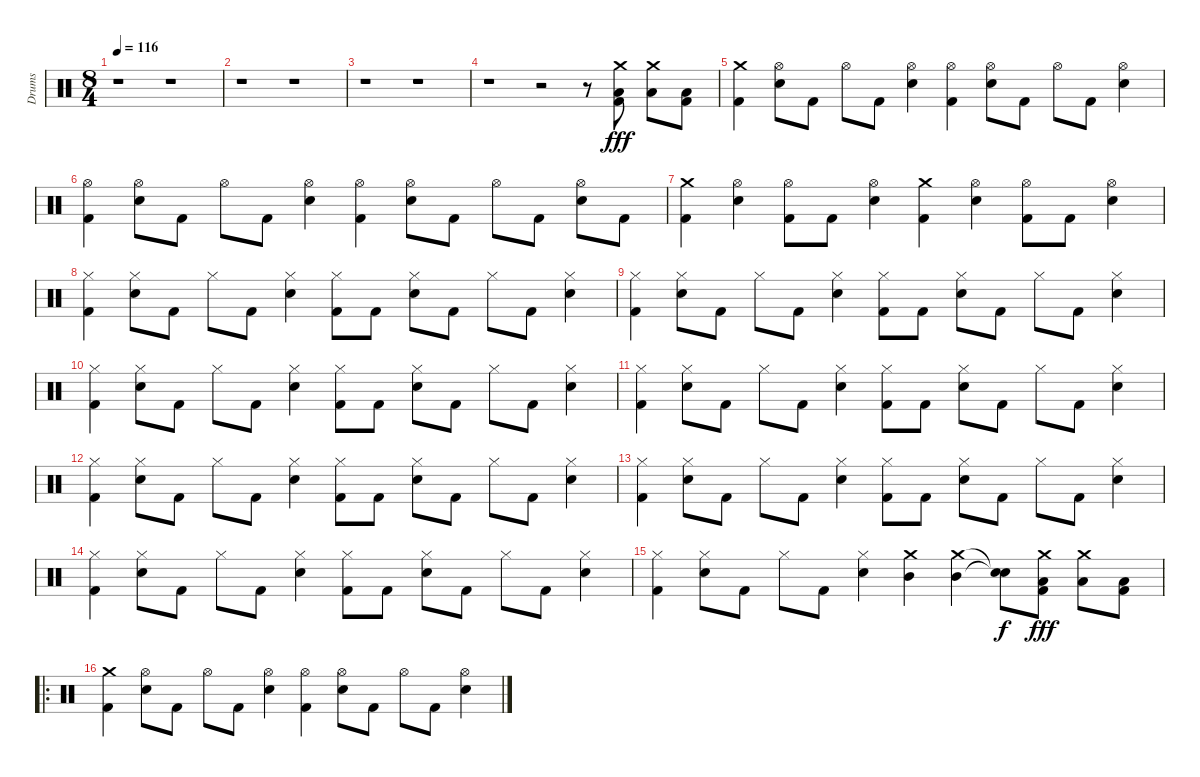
\track ("Drums" "Drums") {instrument percussion}
\staff {score}
\articulation defaults
\ts (8 4)
\tempo 116
\clef neutral
\ks c
r.1{dy fff} r.1 |
r.1 r.1 |
r.1 r.1 |
r.1 r.2 r.8 ("Crash medium (hit)" "Low Tom (hit)" "Kick (hit) 2").8 ("Crash medium (hit)" "Low Tom (hit)").8 ("Low Tom (hit)" "Kick (hit) 2").8 |
("Crash medium (hit)" "Kick (hit) 2").4 ("Hi-Hat (open)" "Snare (hit) 2").8 "Kick (hit) 2".8 "Hi-Hat (open)".8 "Kick (hit) 2".8 ("Hi-Hat (open)" "Snare (hit) 2").4 ("Hi-Hat (open)" "Kick (hit) 2").4 ("Hi-Hat (open)" "Snare (hit) 2").8 "Kick (hit) 2".8 "Hi-Hat (open)".8 "Kick (hit) 2".8 ("Hi-Hat (open)" "Snare (hit) 2").4 |
("Hi-Hat (open)" "Kick (hit) 2").4 ("Hi-Hat (open)" "Snare (hit) 2").8 "Kick (hit) 2".8 "Hi-Hat (open)".8 "Kick (hit) 2".8 ("Hi-Hat (open)" "Snare (hit) 2").4 ("Hi-Hat (open)" "Kick (hit) 2").4 ("Hi-Hat (open)" "Snare (hit) 2").8 "Kick (hit) 2".8 "Hi-Hat (open)".8 "Kick (hit) 2".8 ("Hi-Hat (open)" "Snare (hit) 2").8 "Kick (hit) 2".8 |
("Crash medium (hit)" "Kick (hit) 2").4 ("Hi-Hat (open)" "Snare (hit) 2").4 ("Hi-Hat (open)" "Kick (hit) 2").8 "Kick (hit) 2".8 ("Hi-Hat (open)" "Snare (hit) 2").4 ("Crash medium (hit)" "Kick (hit) 2").4 ("Hi-Hat (open)" "Snare (hit) 2").4 ("Hi-Hat (open)" "Kick (hit) 2").8 "Kick (hit) 2".8 ("Hi-Hat (open)" "Snare (hit) 2").4 |
("Hi-Hat (closed)" "Kick (hit) 2").4 ("Hi-Hat (closed)" "Snare (hit) 2").8 "Kick (hit) 2".8 "Hi-Hat (closed)".8 "Kick (hit) 2".8 ("Hi-Hat (closed)" "Snare (hit) 2").4 ("Hi-Hat (closed)" "Kick (hit) 2").8 "Kick (hit) 2".8 ("Hi-Hat (closed)" "Snare (hit) 2").8 "Kick (hit) 2".8 "Hi-Hat (closed)".8 "Kick (hit) 2".8 ("Hi-Hat (closed)" "Snare (hit) 2").4 |
("Hi-Hat (closed)" "Kick (hit) 2").4 ("Hi-Hat (closed)" "Snare (hit) 2").8 "Kick (hit) 2".8 "Hi-Hat (closed)".8 "Kick (hit) 2".8 ("Hi-Hat (closed)" "Snare (hit) 2").4 ("Hi-Hat (closed)" "Kick (hit) 2").8 "Kick (hit) 2".8 ("Hi-Hat (closed)" "Snare (hit) 2").8 "Kick (hit) 2".8 "Hi-Hat (closed)".8 "Kick (hit) 2".8 ("Hi-Hat (closed)" "Snare (hit) 2").4 |
("Hi-Hat (closed)" "Kick (hit) 2").4 ("Hi-Hat (closed)" "Snare (hit) 2").8 "Kick (hit) 2".8 "Hi-Hat (closed)".8 "Kick (hit) 2".8 ("Hi-Hat (closed)" "Snare (hit) 2").4 ("Hi-Hat (closed)" "Kick (hit) 2").8 "Kick (hit) 2".8 ("Hi-Hat (closed)" "Snare (hit) 2").8 "Kick (hit) 2".8 "Hi-Hat (closed)".8 "Kick (hit) 2".8 ("Hi-Hat (closed)" "Snare (hit) 2").4 |
("Hi-Hat (closed)" "Kick (hit) 2").4 ("Hi-Hat (closed)" "Snare (hit) 2").8 "Kick (hit) 2".8 "Hi-Hat (closed)".8 "Kick (hit) 2".8 ("Hi-Hat (closed)" "Snare (hit) 2").4 ("Hi-Hat (closed)" "Kick (hit) 2").8 "Kick (hit) 2".8 ("Hi-Hat (closed)" "Snare (hit) 2").8 "Kick (hit) 2".8 "Hi-Hat (closed)".8 "Kick (hit) 2".8 ("Hi-Hat (closed)" "Snare (hit) 2").4 |
("Hi-Hat (closed)" "Kick (hit) 2").4 ("Hi-Hat (closed)" "Snare (hit) 2").8 "Kick (hit) 2".8 "Hi-Hat (closed)".8 "Kick (hit) 2".8 ("Hi-Hat (closed)" "Snare (hit) 2").4 ("Hi-Hat (closed)" "Kick (hit) 2").8 "Kick (hit) 2".8 ("Hi-Hat (closed)" "Snare (hit) 2").8 "Kick (hit) 2".8 "Hi-Hat (closed)".8 "Kick (hit) 2".8 ("Hi-Hat (closed)" "Snare (hit) 2").4 |
("Hi-Hat (closed)" "Kick (hit) 2").4 ("Hi-Hat (closed)" "Snare (hit) 2").8 "Kick (hit) 2".8 "Hi-Hat (closed)".8 "Kick (hit) 2".8 ("Hi-Hat (closed)" "Snare (hit) 2").4 ("Hi-Hat (closed)" "Kick (hit) 2").8 "Kick (hit) 2".8 ("Hi-Hat (closed)" "Snare (hit) 2").8 "Kick (hit) 2".8 "Hi-Hat (closed)".8 "Kick (hit) 2".8 ("Hi-Hat (closed)" "Snare (hit) 2").4 |
("Hi-Hat (closed)" "Kick (hit) 2").4 ("Hi-Hat (closed)" "Snare (hit) 2").8 "Kick (hit) 2".8 "Hi-Hat (closed)".8 "Kick (hit) 2".8 ("Hi-Hat (closed)" "Snare (hit) 2").4 ("Hi-Hat (closed)" "Kick (hit) 2").8 "Kick (hit) 2".8 ("Hi-Hat (closed)" "Snare (hit) 2").8 "Kick (hit) 2".8 "Hi-Hat (closed)".8 "Kick (hit) 2".8 ("Hi-Hat (closed)" "Snare (hit) 2").4 |
("Hi-Hat (closed)" "Kick (hit) 2").4 ("Hi-Hat (closed)" "Snare (hit) 2").8 "Kick (hit) 2".8 "Hi-Hat (closed)".8 "Kick (hit) 2".8 ("Hi-Hat (closed)" "Snare (hit) 2").4 ("Crash medium (hit)" "Mid Tom (hit)").4 ("Crash medium (hit)" "Mid Tom (hit)").4 ("Snare (hit)"{t} "Snare (hit)"{t}).8{dy f} ("Crash medium (hit)" "Low Tom (hit)" "Kick (hit) 2").8{dy fff} ("Crash medium (hit)" "Low Tom (hit)").8 ("Low Tom (hit)" "Kick (hit) 2").8 |
\ro
("Crash medium (hit)" "Kick (hit) 2").4 ("Hi-Hat (open)" "Snare (hit) 2").8 "Kick (hit) 2".8 "Hi-Hat (open)".8 "Kick (hit) 2".8 ("Hi-Hat (open)" "Snare (hit) 2").4 ("Hi-Hat (open)" "Kick (hit) 2").4 ("Hi-Hat (open)" "Snare (hit) 2").8 "Kick (hit) 2".8 "Hi-Hat (open)".8 "Kick (hit) 2".8 ("Hi-Hat (open)" "Snare (hit) 2").4
